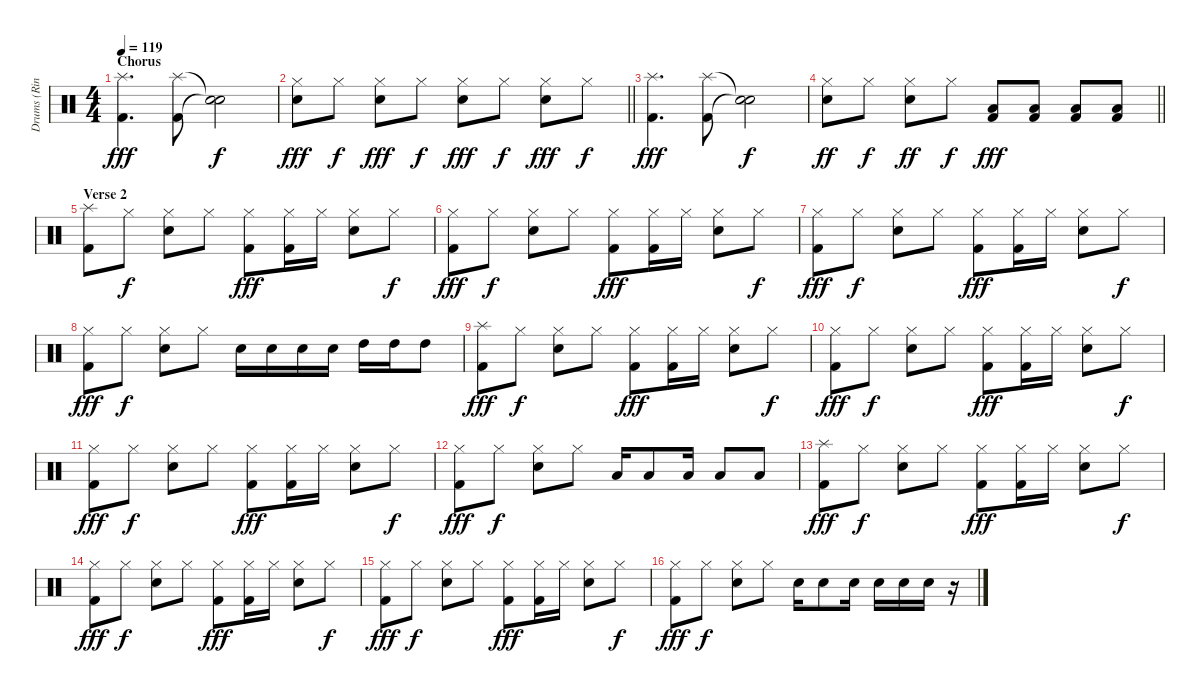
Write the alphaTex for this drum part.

\track ("Drums (Ringo Starr)" "Drums (Rin") {instrument percussion}
\staff {score}
\articulation defaults
\ts (4 4)
\section ("" "Chorus")
\tempo 119
\clef neutral
\ks c
("Splash (hit)" "Kick (hit) 2").4{d dy fff} ("Splash (hit)" "Kick (hit) 2").8 ("Snare (hit)"{t} "Snare (hit)"{t}).2{dy f} |
\barLineRight lightlight
("Hi-Hat (closed)" "Snare (hit) 2").8{dy fff} "Hi-Hat (closed)".8{dy f} ("Hi-Hat (closed)" "Snare (hit) 2").8{dy fff} "Hi-Hat (closed)".8{dy f} ("Hi-Hat (closed)" "Snare (hit) 2").8{dy fff} "Hi-Hat (closed)".8{dy f} ("Hi-Hat (closed)" "Snare (hit) 2").8{dy fff} "Hi-Hat (closed)".8{dy f} |
("Splash (hit)" "Kick (hit) 2").4{d dy fff} ("Splash (hit)" "Kick (hit) 2").8 ("Snare (hit)"{t} "Snare (hit)"{t}).2{dy f} |
\barLineRight lightlight
("Hi-Hat (closed)" "Snare (hit) 2").8{dy ff} "Hi-Hat (closed)".8{dy f} ("Hi-Hat (closed)" "Snare (hit) 2").8{dy ff} "Hi-Hat (closed)".8{dy f} ("Low Floor Tom (hit)" "Kick (hit) 2").8{dy fff} ("Low Floor Tom (hit)" "Kick (hit) 2").8 ("Low Floor Tom (hit)" "Kick (hit) 2").8 ("Low Floor Tom (hit)" "Kick (hit) 2").8 |
\section ("" "Verse 2")
("Splash (hit)" "Kick (hit) 2").8 "Hi-Hat (closed)".8{dy f} ("Hi-Hat (closed)" "Snare (hit) 2").8 "Hi-Hat (closed)".8 ("Hi-Hat (closed)" "Kick (hit) 2").8{dy fff} ("Hi-Hat (closed)" "Kick (hit) 2").16 "Hi-Hat (closed)".16 ("Hi-Hat (closed)" "Snare (hit) 2").8 "Hi-Hat (closed)".8{dy f} |
("Hi-Hat (closed)" "Kick (hit) 2").8{dy fff} "Hi-Hat (closed)".8{dy f} ("Hi-Hat (closed)" "Snare (hit) 2").8 "Hi-Hat (closed)".8 ("Hi-Hat (closed)" "Kick (hit) 2").8{dy fff} ("Hi-Hat (closed)" "Kick (hit) 2").16 "Hi-Hat (closed)".16 ("Hi-Hat (closed)" "Snare (hit) 2").8 "Hi-Hat (closed)".8{dy f} |
("Hi-Hat (closed)" "Kick (hit) 2").8{dy fff} "Hi-Hat (closed)".8{dy f} ("Hi-Hat (closed)" "Snare (hit) 2").8 "Hi-Hat (closed)".8 ("Hi-Hat (closed)" "Kick (hit) 2").8{dy fff} ("Hi-Hat (closed)" "Kick (hit) 2").16 "Hi-Hat (closed)".16 ("Hi-Hat (closed)" "Snare (hit) 2").8 "Hi-Hat (closed)".8{dy f} |
("Hi-Hat (closed)" "Kick (hit) 2").8{dy fff} "Hi-Hat (closed)".8{dy f} ("Hi-Hat (closed)" "Snare (hit) 2").8 "Hi-Hat (closed)".8 "Snare (hit) 2".16 "Snare (hit) 2".16 "Snare (hit) 2".16 "Snare (hit) 2".16 "High Tom (hit)".16 "High Tom (hit)".16 "High Tom (hit)".8 |
("Splash (hit)" "Kick (hit) 2").8{dy fff} "Hi-Hat (closed)".8{dy f} ("Hi-Hat (closed)" "Snare (hit) 2").8 "Hi-Hat (closed)".8 ("Hi-Hat (closed)" "Kick (hit) 2").8{dy fff} ("Hi-Hat (closed)" "Kick (hit) 2").16 "Hi-Hat (closed)".16 ("Hi-Hat (closed)" "Snare (hit) 2").8 "Hi-Hat (closed)".8{dy f} |
("Hi-Hat (closed)" "Kick (hit) 2").8{dy fff} "Hi-Hat (closed)".8{dy f} ("Hi-Hat (closed)" "Snare (hit) 2").8 "Hi-Hat (closed)".8 ("Hi-Hat (closed)" "Kick (hit) 2").8{dy fff} ("Hi-Hat (closed)" "Kick (hit) 2").16 "Hi-Hat (closed)".16 ("Hi-Hat (closed)" "Snare (hit) 2").8 "Hi-Hat (closed)".8{dy f} |
("Hi-Hat (closed)" "Kick (hit) 2").8{dy fff} "Hi-Hat (closed)".8{dy f} ("Hi-Hat (closed)" "Snare (hit) 2").8 "Hi-Hat (closed)".8 ("Hi-Hat (closed)" "Kick (hit) 2").8{dy fff} ("Hi-Hat (closed)" "Kick (hit) 2").16 "Hi-Hat (closed)".16 ("Hi-Hat (closed)" "Snare (hit) 2").8 "Hi-Hat (closed)".8{dy f} |
("Hi-Hat (closed)" "Kick (hit) 2").8{dy fff} "Hi-Hat (closed)".8{dy f} ("Hi-Hat (closed)" "Snare (hit) 2").8 "Hi-Hat (closed)".8 "Low Floor Tom (hit)".16 "Low Floor Tom (hit)".8 "Low Floor Tom (hit)".16 "Low Floor Tom (hit)".8 "Low Floor Tom (hit)".8 |
("Splash (hit)" "Kick (hit) 2").8{dy fff} "Hi-Hat (closed)".8{dy f} ("Hi-Hat (closed)" "Snare (hit) 2").8 "Hi-Hat (closed)".8 ("Hi-Hat (closed)" "Kick (hit) 2").8{dy fff} ("Hi-Hat (closed)" "Kick (hit) 2").16 "Hi-Hat (closed)".16 ("Hi-Hat (closed)" "Snare (hit) 2").8 "Hi-Hat (closed)".8{dy f} |
("Hi-Hat (closed)" "Kick (hit) 2").8{dy fff} "Hi-Hat (closed)".8{dy f} ("Hi-Hat (closed)" "Snare (hit) 2").8 "Hi-Hat (closed)".8 ("Hi-Hat (closed)" "Kick (hit) 2").8{dy fff} ("Hi-Hat (closed)" "Kick (hit) 2").16 "Hi-Hat (closed)".16 ("Hi-Hat (closed)" "Snare (hit) 2").8 "Hi-Hat (closed)".8{dy f} |
("Hi-Hat (closed)" "Kick (hit) 2").8{dy fff} "Hi-Hat (closed)".8{dy f} ("Hi-Hat (closed)" "Snare (hit) 2").8 "Hi-Hat (closed)".8 ("Hi-Hat (closed)" "Kick (hit) 2").8{dy fff} ("Hi-Hat (closed)" "Kick (hit) 2").16 "Hi-Hat (closed)".16 ("Hi-Hat (closed)" "Snare (hit) 2").8 "Hi-Hat (closed)".8{dy f} |
("Hi-Hat (closed)" "Kick (hit) 2").8{dy fff} "Hi-Hat (closed)".8{dy f} ("Hi-Hat (closed)" "Snare (hit) 2").8 "Hi-Hat (closed)".8 "Snare (hit) 2".16 "Snare (hit) 2".8 "Snare (hit) 2".16 "Snare (hit) 2".16 "Snare (hit) 2".16 "Snare (hit) 2".16 r.16
